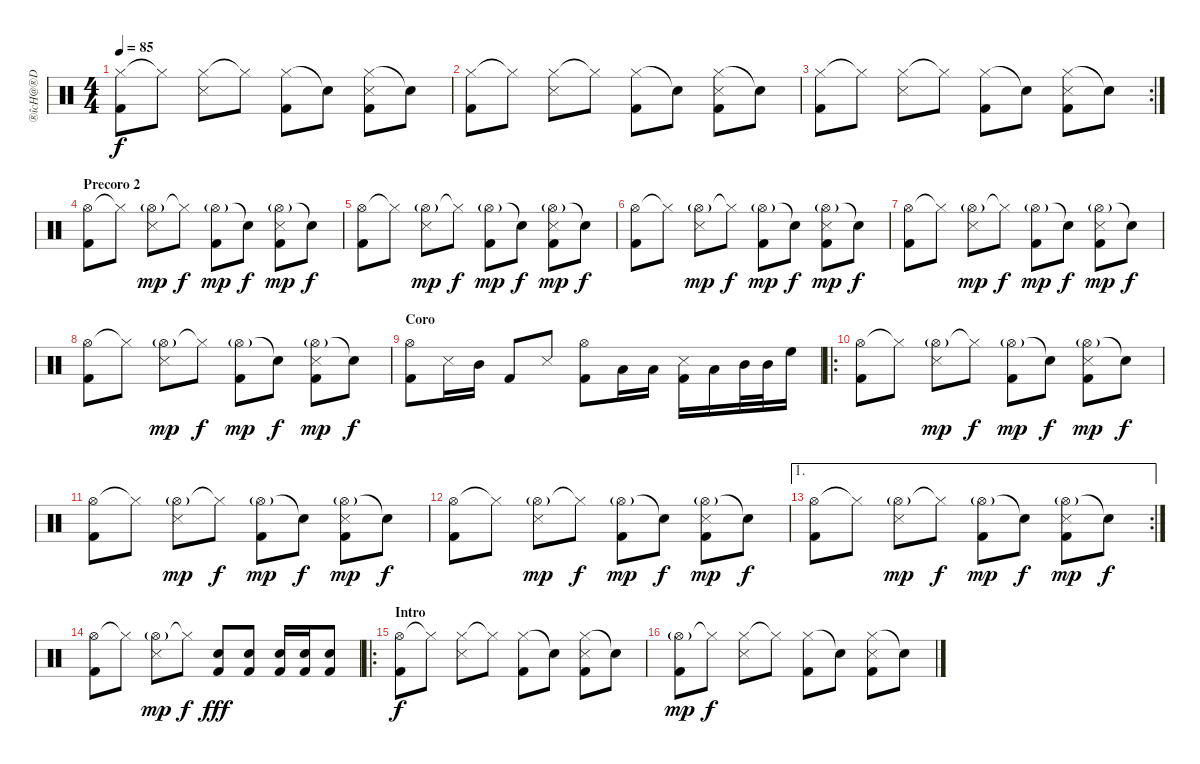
\track ("®îcH@®D" "®îcH@®D") {instrument percussion}
\staff {score}
\articulation defaults
\ts (4 4)
\tempo 85
\clef neutral
\ks c
("Hi-Hat (closed)" "Kick (hit) 2").8{dy f} "Hi-Hat (closed)"{t}.8 ("Hi-Hat (closed)" "Snare (side stick) 3").8 "Hi-Hat (closed)"{t}.8 ("Hi-Hat (closed)" "Kick (hit) 2").8 "Snare (hit)"{t}.8 ("Hi-Hat (closed)" "Snare (side stick) 3" "Kick (hit) 2").8 "Snare (hit)"{t}.8 |
("Hi-Hat (closed)" "Kick (hit) 2").8 "Hi-Hat (closed)"{t}.8 ("Hi-Hat (closed)" "Snare (side stick) 3").8 "Hi-Hat (closed)"{t}.8 ("Hi-Hat (closed)" "Kick (hit) 2").8 "Snare (hit)"{t}.8 ("Hi-Hat (closed)" "Snare (side stick) 3" "Kick (hit) 2").8 "Snare (hit)"{t}.8 |
\rc 2
("Hi-Hat (closed)" "Kick (hit) 2").8 "Hi-Hat (closed)"{t}.8 ("Hi-Hat (closed)" "Snare (side stick) 3").8 "Hi-Hat (closed)"{t}.8 ("Hi-Hat (closed)" "Kick (hit) 2").8 "Snare (hit)"{t}.8 ("Hi-Hat (closed)" "Snare (side stick) 3" "Kick (hit) 2").8 "Snare (hit)"{t}.8 |
\section ("" "Precoro 2")
("Hi-Hat (open)" "Kick (hit) 2").8{volume 16} "Hi-Hat (closed)"{t}.8 ("Hi-Hat (open)"{g} "Snare (side stick) 3").8{dy mp} "Hi-Hat (closed)"{t}.8{dy f} ("Hi-Hat (open)"{g} "Kick (hit) 2").8{dy mp} "Snare (hit)"{t}.8{dy f} ("Hi-Hat (open)"{g} "Snare (side stick) 3" "Kick (hit) 2").8{dy mp} "Snare (hit)"{t}.8{dy f} |
("Hi-Hat (open)" "Kick (hit) 2").8 "Hi-Hat (closed)"{t}.8 ("Hi-Hat (open)"{g} "Snare (side stick) 3").8{dy mp} "Hi-Hat (closed)"{t}.8{dy f} ("Hi-Hat (open)"{g} "Kick (hit) 2").8{dy mp} "Snare (hit)"{t}.8{dy f} ("Hi-Hat (open)"{g} "Snare (side stick) 3" "Kick (hit) 2").8{dy mp} "Snare (hit)"{t}.8{dy f} |
("Hi-Hat (open)" "Kick (hit) 2").8 "Hi-Hat (closed)"{t}.8 ("Hi-Hat (open)"{g} "Snare (side stick) 3").8{dy mp} "Hi-Hat (closed)"{t}.8{dy f} ("Hi-Hat (open)"{g} "Kick (hit) 2").8{dy mp} "Snare (hit)"{t}.8{dy f} ("Hi-Hat (open)"{g} "Snare (side stick) 3" "Kick (hit) 2").8{dy mp} "Snare (hit)"{t}.8{dy f} |
("Hi-Hat (open)" "Kick (hit) 2").8 "Hi-Hat (closed)"{t}.8 ("Hi-Hat (open)"{g} "Snare (side stick) 3").8{dy mp} "Hi-Hat (closed)"{t}.8{dy f} ("Hi-Hat (open)"{g} "Kick (hit) 2").8{dy mp} "Snare (hit)"{t}.8{dy f} ("Hi-Hat (open)"{g} "Snare (side stick) 3" "Kick (hit) 2").8{dy mp} "Snare (hit)"{t}.8{dy f} |
("Hi-Hat (open)" "Kick (hit) 2").8 "Hi-Hat (closed)"{t}.8 ("Hi-Hat (open)"{g} "Snare (side stick) 3").8{dy mp} "Hi-Hat (closed)"{t}.8{dy f} ("Hi-Hat (open)"{g} "Kick (hit) 2").8{dy mp} "Snare (hit)"{t}.8{dy f} ("Hi-Hat (open)"{g} "Snare (side stick) 3" "Kick (hit) 2").8{dy mp} "Snare (hit)"{t}.8{dy f} |
\section ("" "Coro")
("Hi-Hat (open)" "Kick (hit) 2").8{volume 16} "Snare (side stick) 3".16 "Mid Tom (hit)".16 "Kick (hit) 2".8 "Snare (side stick) 3".8 ("Hi-Hat (open)" "Kick (hit) 2").8 "Low Floor Tom (hit)".16 "Low Tom (hit)".16 ("Snare (side stick) 3" "Kick (hit) 2").16 "Low Tom (hit)".16 "Mid Tom (hit)".32 "Mid Tom (hit)".32 "High Floor Tom (hit)".16 |
\ro
("Hi-Hat (open)" "Kick (hit) 2").8{volume 13} "Hi-Hat (closed)"{t}.8 ("Hi-Hat (open)"{g} "Snare (side stick) 3").8{dy mp} "Hi-Hat (closed)"{t}.8{dy f} ("Hi-Hat (open)"{g} "Kick (hit) 2").8{dy mp} "Snare (hit)"{t}.8{dy f} ("Hi-Hat (open)"{g} "Snare (side stick) 3" "Kick (hit) 2").8{dy mp} "Snare (hit)"{t}.8{dy f} |
("Hi-Hat (open)" "Kick (hit) 2").8 "Hi-Hat (closed)"{t}.8 ("Hi-Hat (open)"{g} "Snare (side stick) 3").8{dy mp} "Hi-Hat (closed)"{t}.8{dy f} ("Hi-Hat (open)"{g} "Kick (hit) 2").8{dy mp} "Snare (hit)"{t}.8{dy f} ("Hi-Hat (open)"{g} "Snare (side stick) 3" "Kick (hit) 2").8{dy mp} "Snare (hit)"{t}.8{dy f} |
("Hi-Hat (open)" "Kick (hit) 2").8 "Hi-Hat (closed)"{t}.8 ("Hi-Hat (open)"{g} "Snare (side stick) 3").8{dy mp} "Hi-Hat (closed)"{t}.8{dy f} ("Hi-Hat (open)"{g} "Kick (hit) 2").8{dy mp} "Snare (hit)"{t}.8{dy f} ("Hi-Hat (open)"{g} "Snare (side stick) 3" "Kick (hit) 2").8{dy mp} "Snare (hit)"{t}.8{dy f} |
\ae 1
\rc 2
("Hi-Hat (open)" "Kick (hit) 2").8 "Hi-Hat (closed)"{t}.8 ("Hi-Hat (open)"{g} "Snare (side stick) 3").8{dy mp} "Hi-Hat (closed)"{t}.8{dy f} ("Hi-Hat (open)"{g} "Kick (hit) 2").8{dy mp} "Snare (hit)"{t}.8{dy f} ("Hi-Hat (open)"{g} "Snare (side stick) 3" "Kick (hit) 2").8{dy mp} "Snare (hit)"{t}.8{dy f} |
("Hi-Hat (open)" "Kick (hit) 2").8 "Hi-Hat (closed)"{t}.8 ("Hi-Hat (open)"{g} "Snare (side stick) 3").8{dy mp} "Hi-Hat (closed)"{t}.8{dy f} ("Electric Snare (hit)" "Kick (hit) 2").8{dy fff volume 16} ("Electric Snare (hit)" "Kick (hit) 2").8 ("Electric Snare (hit)" "Kick (hit) 2").16 ("Electric Snare (hit)" "Kick (hit) 2").16 ("Electric Snare (hit)" "Kick (hit) 2").8 |
\ro
\section ("" "Intro")
("Hi-Hat (open)" "Kick (hit) 2").8{dy f volume 13} "Hi-Hat (closed)"{t}.8 ("Hi-Hat (closed)" "Snare (side stick) 3").8 "Hi-Hat (closed)"{t}.8 ("Hi-Hat (closed)" "Kick (hit) 2").8 "Snare (hit)"{t}.8 ("Hi-Hat (closed)" "Snare (side stick) 3" "Kick (hit) 2").8 "Snare (hit)"{t}.8 |
("Hi-Hat (open)"{g} "Kick (hit) 2").8{dy mp} "Hi-Hat (closed)"{t}.8{dy f} ("Hi-Hat (closed)" "Snare (side stick) 3").8 "Hi-Hat (closed)"{t}.8 ("Hi-Hat (closed)" "Kick (hit) 2").8 "Snare (hit)"{t}.8 ("Hi-Hat (closed)" "Snare (side stick) 3" "Kick (hit) 2").8 "Snare (hit)"{t}.8
